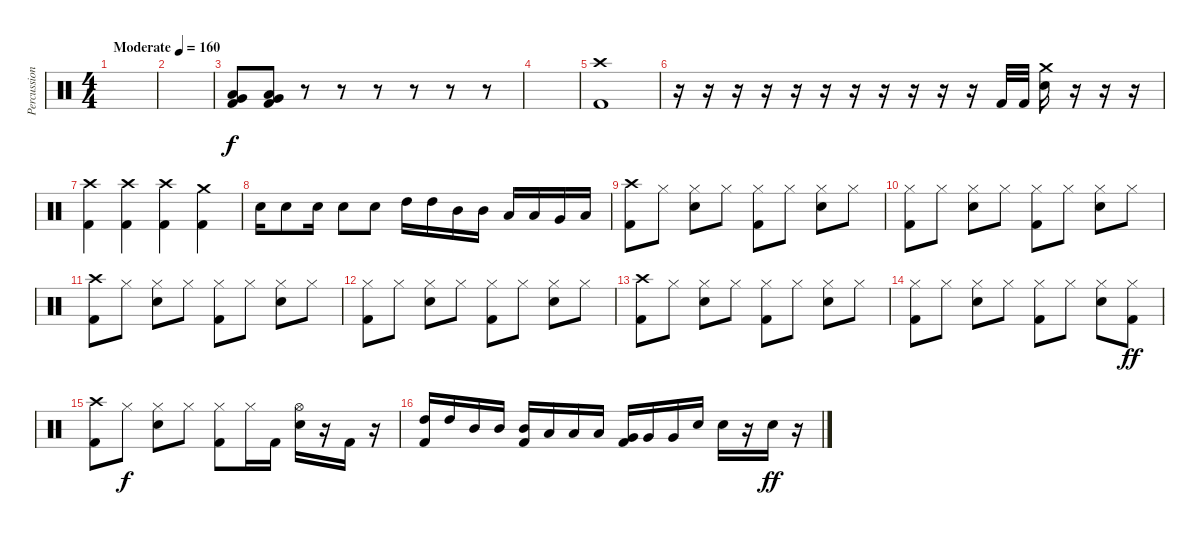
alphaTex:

\track ("Percussion" "Percussion") {instrument percussion}
\staff {score}
\articulation defaults
\ts (4 4)
\tempo (160 "Moderate")
\tempo 145
\tempo (160 "Moderate")
\clef neutral
\ks c
|
|
("Low Tom (hit)" "Very Low Tom (hit)" "Kick (hit) 2").8 ("Low Tom (hit)" "Very Low Tom (hit)" "Kick (hit) 2").8 r.8 r.8 r.8 r.8 r.8 r.8 |
|
("Crash high (hit)" "Kick (hit) 2").1 |
r.16 r.16 r.16 r.16 r.16 r.16 r.16 r.16 r.16 r.16 r.16 "Kick (hit) 2".32{dy f} "Kick (hit) 2".32 ("Crash medium (hit)" "Snare (hit) 2").16 r.16 r.16 r.16 |
("Crash high (hit)" "Kick (hit) 2").4 ("Crash high (hit)" "Kick (hit) 2").4 ("Crash high (hit)" "Kick (hit) 2").4 ("Crash medium (hit)" "Kick (hit) 2").4 |
"Snare (hit) 2".16 "Snare (hit) 2".8 "Snare (hit) 2".16 "Snare (hit) 2".8 "Snare (hit) 2".8 "High Tom (hit)".16 "High Tom (hit)".16 "Mid Tom (hit)".16 "Mid Tom (hit)".16 "Low Tom (hit)".16 "Low Tom (hit)".16 "Very Low Tom (hit)".16 "Low Floor Tom (hit)".16 |
("Crash high (hit)" "Kick (hit) 2").8 "Hi-Hat (closed)".8 ("Hi-Hat (closed)" "Snare (hit) 2").8 "Hi-Hat (closed)".8 ("Hi-Hat (closed)" "Kick (hit) 2").8 "Hi-Hat (closed)".8 ("Hi-Hat (closed)" "Snare (hit) 2").8 "Hi-Hat (closed)".8 |
("Hi-Hat (closed)" "Kick (hit) 2").8 "Hi-Hat (closed)".8 ("Hi-Hat (closed)" "Snare (hit) 2").8 "Hi-Hat (closed)".8 ("Hi-Hat (closed)" "Kick (hit) 2").8 "Hi-Hat (closed)".8 ("Hi-Hat (closed)" "Snare (hit) 2").8 "Hi-Hat (closed)".8 |
("Crash high (hit)" "Kick (hit) 2").8 "Hi-Hat (closed)".8 ("Hi-Hat (closed)" "Snare (hit) 2").8 "Hi-Hat (closed)".8 ("Hi-Hat (closed)" "Kick (hit) 2").8 "Hi-Hat (closed)".8 ("Hi-Hat (closed)" "Snare (hit) 2").8 "Hi-Hat (closed)".8 |
("Hi-Hat (closed)" "Kick (hit) 2").8 "Hi-Hat (closed)".8 ("Hi-Hat (closed)" "Snare (hit) 2").8 "Hi-Hat (closed)".8 ("Hi-Hat (closed)" "Kick (hit) 2").8 "Hi-Hat (closed)".8 ("Hi-Hat (closed)" "Snare (hit) 2").8 "Hi-Hat (closed)".8 |
("Crash high (hit)" "Kick (hit) 2").8 "Hi-Hat (closed)".8 ("Hi-Hat (closed)" "Snare (hit) 2").8 "Hi-Hat (closed)".8 ("Hi-Hat (closed)" "Kick (hit) 2").8 "Hi-Hat (closed)".8 ("Hi-Hat (closed)" "Snare (hit) 2").8 "Hi-Hat (closed)".8 |
("Hi-Hat (closed)" "Kick (hit) 2").8 "Hi-Hat (closed)".8 ("Hi-Hat (closed)" "Snare (hit) 2").8 "Hi-Hat (closed)".8 ("Hi-Hat (closed)" "Kick (hit) 2").8 "Hi-Hat (closed)".8 ("Hi-Hat (closed)" "Snare (hit) 2").8 ("Hi-Hat (closed)" "Kick (hit) 2").8{dy ff} |
("Crash high (hit)" "Kick (hit) 2").8 "Hi-Hat (closed)".8{dy f} ("Hi-Hat (closed)" "Snare (hit) 2").8 "Hi-Hat (closed)".8 ("Hi-Hat (closed)" "Kick (hit) 2").8 "Hi-Hat (closed)".16 "Kick (hit) 2".16 ("Hi-Hat (open)" "Snare (hit) 2").16 r.16 "Kick (hit) 2".16 r.16 |
("High Tom (hit)" "Kick (hit) 2").16 "High Tom (hit)".16 "Mid Tom (hit)".16 "Mid Tom (hit)".16 ("Mid Tom (hit)" "Kick (hit) 2").16 "Low Tom (hit)".16 "Low Tom (hit)".16 "Low Tom (hit)".16 ("Very Low Tom (hit)" "Kick (hit) 2").16 "Very Low Tom (hit)".16 "Very Low Tom (hit)".16 "Snare (hit) 2".16 "Snare (hit) 2".16 r.16 "Snare (hit) 2".16{dy ff} r.16
